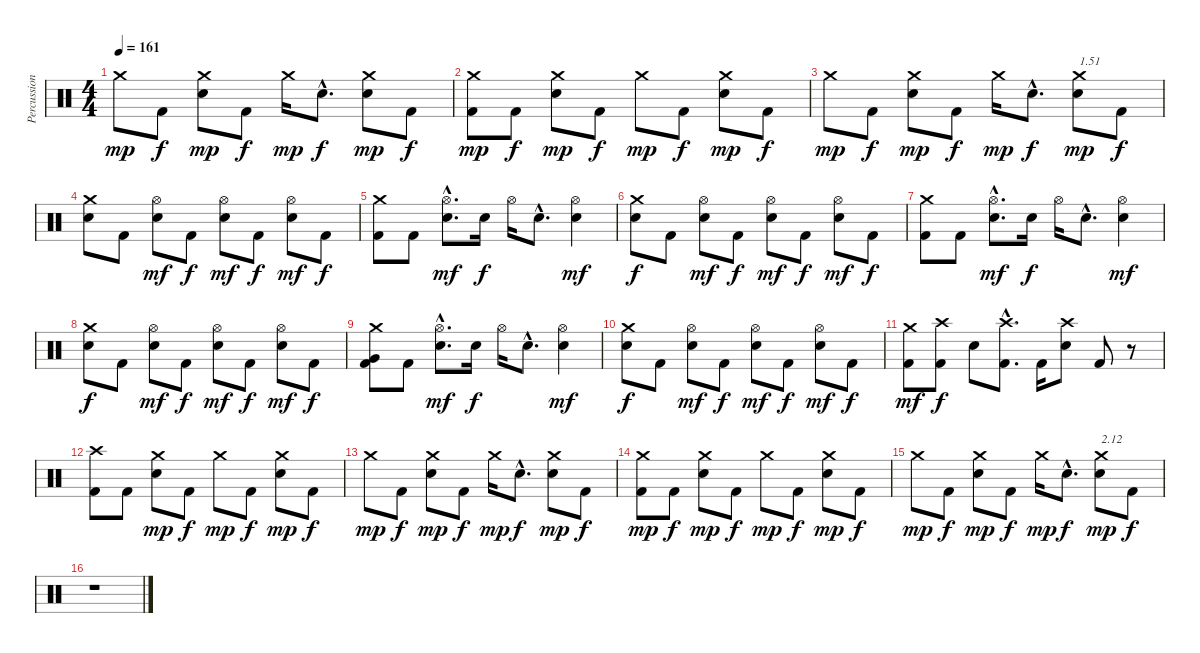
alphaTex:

\track ("Percussions" "Percussion") {instrument percussion}
\staff {score}
\articulation defaults
\ts (4 4)
\tempo 161
\clef neutral
\ks c "Crash medium (hit)".8{dy mp} "Kick (hit) 2".8{dy f}
("Electric Snare (hit)" "Crash medium (hit)").8{dy mp} "Kick (hit) 2".8{dy f} "Crash medium (hit)".16{dy mp} "Electric Snare (hit)"{hac}.8{d dy f} ("Electric Snare (hit)" "Crash medium (hit)").8{dy mp} "Kick (hit) 2".8{dy f} |
("Kick (hit) 2" "Crash medium (hit)").8{dy mp} "Kick (hit) 2".8{dy f} ("Electric Snare (hit)" "Crash medium (hit)").8{dy mp} "Kick (hit) 2".8{dy f} "Crash medium (hit)".8{dy mp} "Kick (hit) 2".8{dy f} ("Electric Snare (hit)" "Crash medium (hit)").8{dy mp} "Kick (hit) 2".8{dy f} |
"Crash medium (hit)".8{dy mp} "Kick (hit) 2".8{dy f} ("Electric Snare (hit)" "Crash medium (hit)").8{dy mp} "Kick (hit) 2".8{dy f} "Crash medium (hit)".16{dy mp} "Electric Snare (hit)"{hac}.8{d dy f} ("Electric Snare (hit)" "Crash medium (hit)").8{txt "1.51" dy mp} "Kick (hit) 2".8{dy f} |
("Electric Snare (hit)" "Crash medium (hit)").8 "Kick (hit) 2".8 ("Electric Snare (hit)" "Hi-Hat (open)").8{dy mf} "Kick (hit) 2".8{dy f} ("Electric Snare (hit)" "Hi-Hat (open)").8{dy mf} "Kick (hit) 2".8{dy f} ("Electric Snare (hit)" "Hi-Hat (open)").8{dy mf} "Kick (hit) 2".8{dy f} |
("Kick (hit) 2" "Crash medium (hit)").8 "Kick (hit) 2".8 ("Electric Snare (hit)"{hac} "Hi-Hat (open)"{hac}).8{d dy mf} "Electric Snare (hit)".16{dy f} "Hi-Hat (open)".16 "Electric Snare (hit)"{hac}.8{d} ("Electric Snare (hit)" "Hi-Hat (open)").4{dy mf} |
("Electric Snare (hit)" "Crash medium (hit)").8{dy f} "Kick (hit) 2".8 ("Electric Snare (hit)" "Hi-Hat (open)").8{dy mf} "Kick (hit) 2".8{dy f} ("Electric Snare (hit)" "Hi-Hat (open)").8{dy mf} "Kick (hit) 2".8{dy f} ("Electric Snare (hit)" "Hi-Hat (open)").8{dy mf} "Kick (hit) 2".8{dy f} |
("Kick (hit) 2" "Crash medium (hit)").8 "Kick (hit) 2".8 ("Electric Snare (hit)"{hac} "Hi-Hat (open)"{hac}).8{d dy mf} "Electric Snare (hit)".16{dy f} "Hi-Hat (open)".16 "Electric Snare (hit)"{hac}.8{d} ("Electric Snare (hit)" "Hi-Hat (open)").4{dy mf} |
("Electric Snare (hit)" "Crash medium (hit)").8{dy f} "Kick (hit) 2".8 ("Electric Snare (hit)" "Hi-Hat (open)").8{dy mf} "Kick (hit) 2".8{dy f} ("Electric Snare (hit)" "Hi-Hat (open)").8{dy mf} "Kick (hit) 2".8{dy f} ("Electric Snare (hit)" "Hi-Hat (open)").8{dy mf} "Kick (hit) 2".8{dy f} |
("Kick (hit) 2" "Very Low Tom (hit)" "Crash medium (hit)").8 "Kick (hit) 2".8 ("Electric Snare (hit)"{hac} "Hi-Hat (open)"{hac}).8{d dy mf} "Electric Snare (hit)".16{dy f} "Hi-Hat (open)".16 "Electric Snare (hit)"{hac}.8{d} ("Electric Snare (hit)" "Hi-Hat (open)").4{dy mf} |
("Electric Snare (hit)" "Crash medium (hit)").8{dy f} "Kick (hit) 2".8 ("Electric Snare (hit)" "Hi-Hat (open)").8{dy mf} "Kick (hit) 2".8{dy f} ("Electric Snare (hit)" "Hi-Hat (open)").8{dy mf} "Kick (hit) 2".8{dy f} ("Electric Snare (hit)" "Hi-Hat (open)").8{dy mf} "Kick (hit) 2".8{dy f} |
("Kick (hit) 2" "Crash medium (hit)").8{dy mf} ("Kick (hit) 2" "Crash high (hit)").8{dy f} "Electric Snare (hit)".8 ("Kick (hit) 2"{hac} "Crash high (hit)"{hac}).8{d} "Kick (hit) 2".16 ("Electric Snare (hit)" "Crash high (hit)").8 "Kick (hit) 2".8 r.8 |
("Kick (hit) 2" "Crash high (hit)").8 "Kick (hit) 2".8 ("Electric Snare (hit)" "Crash medium (hit)").8{dy mp} "Kick (hit) 2".8{dy f} "Crash medium (hit)".8{dy mp} "Kick (hit) 2".8{dy f} ("Electric Snare (hit)" "Crash medium (hit)").8{dy mp} "Kick (hit) 2".8{dy f} |
"Crash medium (hit)".8{dy mp} "Kick (hit) 2".8{dy f} ("Electric Snare (hit)" "Crash medium (hit)").8{dy mp} "Kick (hit) 2".8{dy f} "Crash medium (hit)".16{dy mp} "Electric Snare (hit)"{hac}.8{d dy f} ("Electric Snare (hit)" "Crash medium (hit)").8{dy mp} "Kick (hit) 2".8{dy f} |
("Kick (hit) 2" "Crash medium (hit)").8{dy mp} "Kick (hit) 2".8{dy f} ("Electric Snare (hit)" "Crash medium (hit)").8{dy mp} "Kick (hit) 2".8{dy f} "Crash medium (hit)".8{dy mp} "Kick (hit) 2".8{dy f} ("Electric Snare (hit)" "Crash medium (hit)").8{dy mp} "Kick (hit) 2".8{dy f} |
"Crash medium (hit)".8{dy mp} "Kick (hit) 2".8{dy f} ("Electric Snare (hit)" "Crash medium (hit)").8{dy mp} "Kick (hit) 2".8{dy f} "Crash medium (hit)".16{dy mp} "Electric Snare (hit)"{hac}.8{d dy f} ("Electric Snare (hit)" "Crash medium (hit)").8{txt "2.12" dy mp} "Kick (hit) 2".8{dy f} |
r.1
